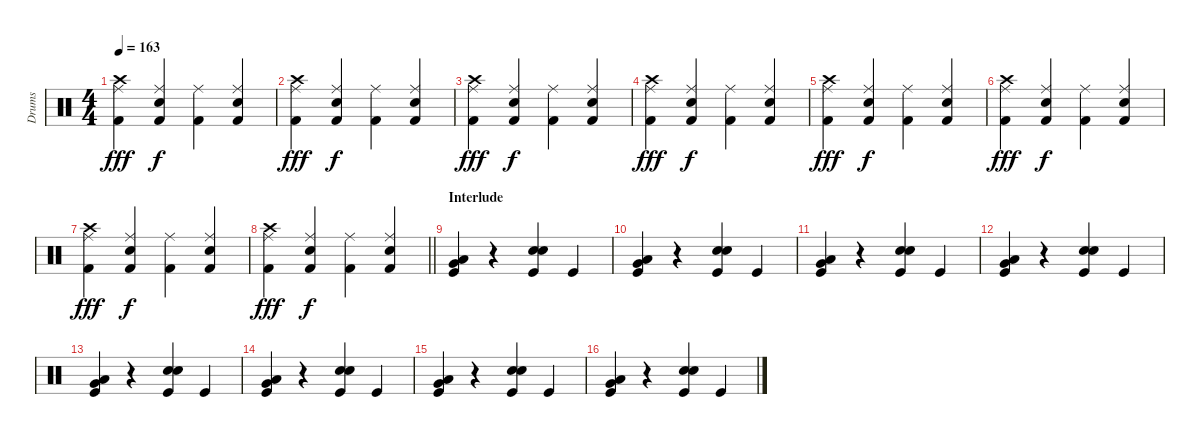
\track ("Drums" "Drums") {instrument percussion}
\staff {score}
\articulation defaults
\ts (4 4)
\tempo 163
\clef neutral
\ks c
("Kick (hit) 2" "Crash high (hit)" "Ride (middle)").4{dy fff} ("Kick (hit) 2" "Snare (hit) 2" "Ride (middle)").4{dy f} ("Kick (hit) 2" "Ride (middle)").4 ("Kick (hit) 2" "Snare (hit) 2" "Ride (middle)").4 |
("Kick (hit) 2" "Crash high (hit)" "Ride (middle)").4{dy fff} ("Kick (hit) 2" "Snare (hit) 2" "Ride (middle)").4{dy f} ("Kick (hit) 2" "Ride (middle)").4 ("Kick (hit) 2" "Snare (hit) 2" "Ride (middle)").4 |
("Kick (hit) 2" "Crash high (hit)" "Ride (middle)").4{dy fff} ("Kick (hit) 2" "Snare (hit) 2" "Ride (middle)").4{dy f} ("Kick (hit) 2" "Ride (middle)").4 ("Kick (hit) 2" "Snare (hit) 2" "Ride (middle)").4 |
("Kick (hit) 2" "Crash high (hit)" "Ride (middle)").4{dy fff} ("Kick (hit) 2" "Snare (hit) 2" "Ride (middle)").4{dy f} ("Kick (hit) 2" "Ride (middle)").4 ("Kick (hit) 2" "Snare (hit) 2" "Ride (middle)").4 |
("Kick (hit) 2" "Crash high (hit)" "Ride (middle)").4{dy fff} ("Kick (hit) 2" "Snare (hit) 2" "Ride (middle)").4{dy f} ("Kick (hit) 2" "Ride (middle)").4 ("Kick (hit) 2" "Snare (hit) 2" "Ride (middle)").4 |
("Kick (hit) 2" "Crash high (hit)" "Ride (middle)").4{dy fff} ("Kick (hit) 2" "Snare (hit) 2" "Ride (middle)").4{dy f} ("Kick (hit) 2" "Ride (middle)").4 ("Kick (hit) 2" "Snare (hit) 2" "Ride (middle)").4 |
("Kick (hit) 2" "Crash high (hit)" "Ride (middle)").4{dy fff} ("Kick (hit) 2" "Snare (hit) 2" "Ride (middle)").4{dy f} ("Kick (hit) 2" "Ride (middle)").4 ("Kick (hit) 2" "Snare (hit) 2" "Ride (middle)").4 |
\barLineRight lightlight
("Kick (hit) 2" "Crash high (hit)" "Ride (middle)").4{dy fff} ("Kick (hit) 2" "Snare (hit) 2" "Ride (middle)").4{dy f} ("Kick (hit) 2" "Ride (middle)").4 ("Kick (hit) 2" "Snare (hit) 2" "Ride (middle)").4 |
\section ("" "Interlude")
("Kick (hit)" "Low Floor Tom (hit)" "Very Low Tom (hit)").4 r.4 ("Kick (hit)" "Snare (hit) 2" "Snare (hit) 2").4 "Kick (hit)".4 |
("Kick (hit)" "Low Floor Tom (hit)" "Very Low Tom (hit)").4 r.4 ("Kick (hit)" "Snare (hit) 2" "Snare (hit) 2").4 "Kick (hit)".4 |
("Kick (hit)" "Low Floor Tom (hit)" "Very Low Tom (hit)").4 r.4 ("Kick (hit)" "Snare (hit) 2" "Snare (hit) 2").4 "Kick (hit)".4 |
("Kick (hit)" "Low Floor Tom (hit)" "Very Low Tom (hit)").4 r.4 ("Kick (hit)" "Snare (hit) 2" "Snare (hit) 2").4 "Kick (hit)".4 |
("Kick (hit)" "Low Floor Tom (hit)" "Very Low Tom (hit)").4 r.4 ("Kick (hit)" "Snare (hit) 2" "Snare (hit) 2").4 "Kick (hit)".4 |
("Kick (hit)" "Low Floor Tom (hit)" "Very Low Tom (hit)").4 r.4 ("Kick (hit)" "Snare (hit) 2" "Snare (hit) 2").4 "Kick (hit)".4 |
("Kick (hit)" "Low Floor Tom (hit)" "Very Low Tom (hit)").4 r.4 ("Kick (hit)" "Snare (hit) 2" "Snare (hit) 2").4 "Kick (hit)".4 |
("Kick (hit)" "Low Floor Tom (hit)" "Very Low Tom (hit)").4 r.4 ("Kick (hit)" "Snare (hit) 2" "Snare (hit) 2").4 "Kick (hit)".4
